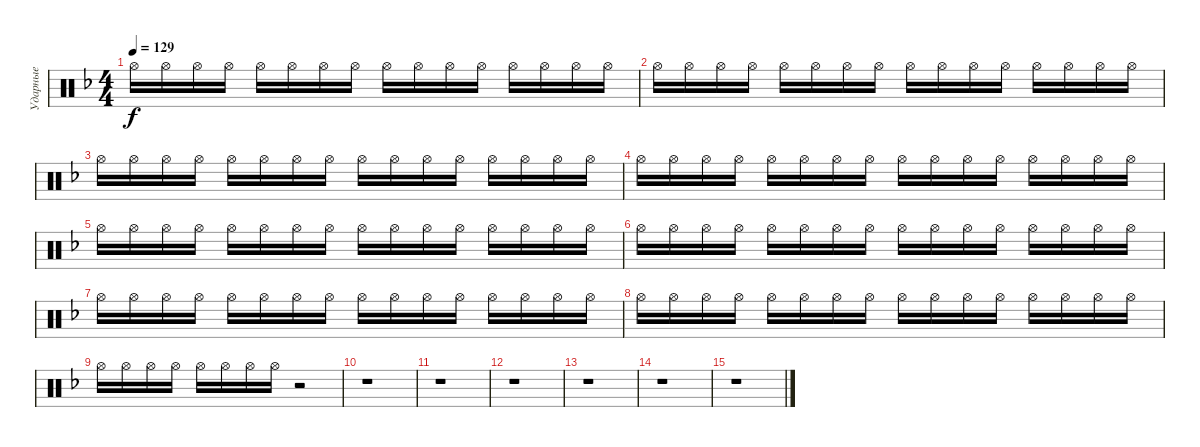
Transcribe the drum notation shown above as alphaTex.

\track ("Ударные" "Ударные") {instrument percussion}
\staff {score}
\articulation defaults
\ts (4 4)
\tempo 129
\clef neutral
\ks dminor "Hi-Hat (open)".16{dy f} "Hi-Hat (open)".16 "Hi-Hat (open)".16 "Hi-Hat (open)".16 "Hi-Hat (open)".16 "Hi-Hat (open)".16 "Hi-Hat (open)".16 "Hi-Hat (open)".16 "Hi-Hat (open)".16 "Hi-Hat (open)".16 "Hi-Hat (open)".16 "Hi-Hat (open)".16 "Hi-Hat (open)".16 "Hi-Hat (open)".16 "Hi-Hat (open)".16 "Hi-Hat (open)".16
|
"Hi-Hat (open)".16 "Hi-Hat (open)".16 "Hi-Hat (open)".16 "Hi-Hat (open)".16 "Hi-Hat (open)".16 "Hi-Hat (open)".16 "Hi-Hat (open)".16 "Hi-Hat (open)".16 "Hi-Hat (open)".16 "Hi-Hat (open)".16 "Hi-Hat (open)".16 "Hi-Hat (open)".16 "Hi-Hat (open)".16 "Hi-Hat (open)".16 "Hi-Hat (open)".16 "Hi-Hat (open)".16 |
"Hi-Hat (open)".16 "Hi-Hat (open)".16 "Hi-Hat (open)".16 "Hi-Hat (open)".16 "Hi-Hat (open)".16 "Hi-Hat (open)".16 "Hi-Hat (open)".16 "Hi-Hat (open)".16 "Hi-Hat (open)".16 "Hi-Hat (open)".16 "Hi-Hat (open)".16 "Hi-Hat (open)".16 "Hi-Hat (open)".16 "Hi-Hat (open)".16 "Hi-Hat (open)".16 "Hi-Hat (open)".16 |
"Hi-Hat (open)".16 "Hi-Hat (open)".16 "Hi-Hat (open)".16 "Hi-Hat (open)".16 "Hi-Hat (open)".16 "Hi-Hat (open)".16 "Hi-Hat (open)".16 "Hi-Hat (open)".16 "Hi-Hat (open)".16 "Hi-Hat (open)".16 "Hi-Hat (open)".16 "Hi-Hat (open)".16 "Hi-Hat (open)".16 "Hi-Hat (open)".16 "Hi-Hat (open)".16 "Hi-Hat (open)".16 |
"Hi-Hat (open)".16 "Hi-Hat (open)".16 "Hi-Hat (open)".16 "Hi-Hat (open)".16 "Hi-Hat (open)".16 "Hi-Hat (open)".16 "Hi-Hat (open)".16 "Hi-Hat (open)".16 "Hi-Hat (open)".16 "Hi-Hat (open)".16 "Hi-Hat (open)".16 "Hi-Hat (open)".16 "Hi-Hat (open)".16 "Hi-Hat (open)".16 "Hi-Hat (open)".16 "Hi-Hat (open)".16 |
"Hi-Hat (open)".16 "Hi-Hat (open)".16 "Hi-Hat (open)".16 "Hi-Hat (open)".16 "Hi-Hat (open)".16 "Hi-Hat (open)".16 "Hi-Hat (open)".16 "Hi-Hat (open)".16 "Hi-Hat (open)".16 "Hi-Hat (open)".16 "Hi-Hat (open)".16 "Hi-Hat (open)".16 "Hi-Hat (open)".16 "Hi-Hat (open)".16 "Hi-Hat (open)".16 "Hi-Hat (open)".16 |
"Hi-Hat (open)".16 "Hi-Hat (open)".16 "Hi-Hat (open)".16 "Hi-Hat (open)".16 "Hi-Hat (open)".16 "Hi-Hat (open)".16 "Hi-Hat (open)".16 "Hi-Hat (open)".16 "Hi-Hat (open)".16 "Hi-Hat (open)".16 "Hi-Hat (open)".16 "Hi-Hat (open)".16 "Hi-Hat (open)".16 "Hi-Hat (open)".16 "Hi-Hat (open)".16 "Hi-Hat (open)".16 |
"Hi-Hat (open)".16 "Hi-Hat (open)".16 "Hi-Hat (open)".16 "Hi-Hat (open)".16 "Hi-Hat (open)".16 "Hi-Hat (open)".16 "Hi-Hat (open)".16 "Hi-Hat (open)".16 "Hi-Hat (open)".16 "Hi-Hat (open)".16 "Hi-Hat (open)".16 "Hi-Hat (open)".16 "Hi-Hat (open)".16 "Hi-Hat (open)".16 "Hi-Hat (open)".16 "Hi-Hat (open)".16 |
"Hi-Hat (open)".16 "Hi-Hat (open)".16 "Hi-Hat (open)".16 "Hi-Hat (open)".16 "Hi-Hat (open)".16 "Hi-Hat (open)".16 "Hi-Hat (open)".16 "Hi-Hat (open)".16 r.2 |
r.1 |
r.1 |
r.1 |
r.1 |
r.1 |
r.1
